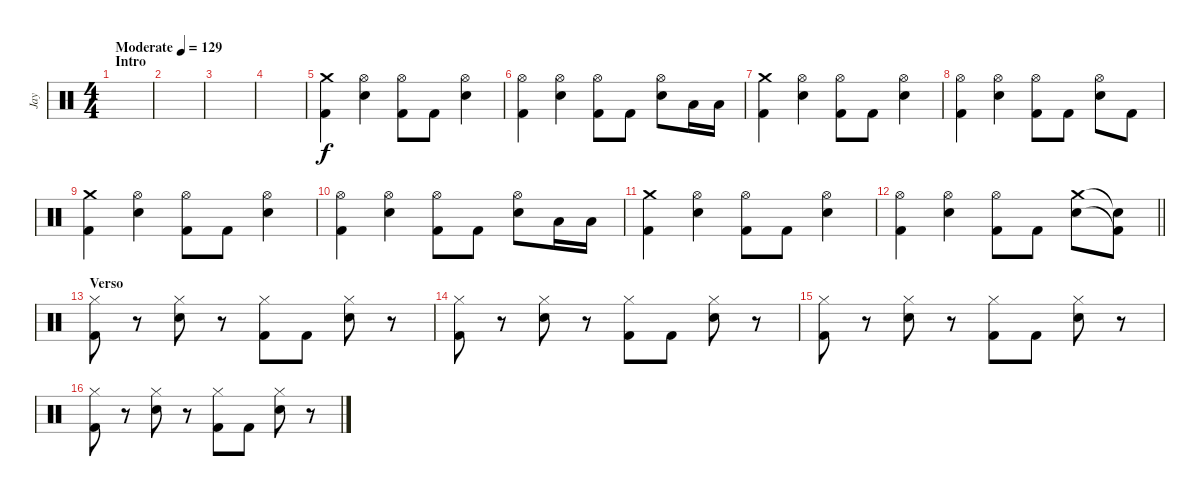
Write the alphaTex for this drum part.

\track ("Jay" "Jay") {instrument percussion}
\staff {score}
\articulation defaults
\ts (4 4)
\section ("" "Intro")
\tempo (129 "Moderate")
\clef neutral
\ks c
|
|
|
|
("Crash medium (hit)" "Kick (hit) 2").4 ("Hi-Hat (open)" "Electric Snare (hit)").4 ("Hi-Hat (open)" "Kick (hit) 2").8 "Kick (hit) 2".8 ("Hi-Hat (open)" "Electric Snare (hit)").4 |
("Hi-Hat (open)" "Kick (hit) 2").4 ("Hi-Hat (open)" "Electric Snare (hit)").4 ("Hi-Hat (open)" "Kick (hit) 2").8 "Kick (hit) 2".8 ("Hi-Hat (open)" "Electric Snare (hit)").8 "Low Tom (hit)".16 "Low Tom (hit)".16 |
("Crash medium (hit)" "Kick (hit) 2").4 ("Hi-Hat (open)" "Electric Snare (hit)").4 ("Hi-Hat (open)" "Kick (hit) 2").8 "Kick (hit) 2".8 ("Hi-Hat (open)" "Electric Snare (hit)").4 |
("Hi-Hat (open)" "Kick (hit) 2").4 ("Hi-Hat (open)" "Electric Snare (hit)").4 ("Hi-Hat (open)" "Kick (hit) 2").8 "Kick (hit) 2".8 ("Hi-Hat (open)" "Electric Snare (hit)").8 "Kick (hit) 2".8 |
("Crash medium (hit)" "Kick (hit) 2").4 ("Hi-Hat (open)" "Electric Snare (hit)").4 ("Hi-Hat (open)" "Kick (hit) 2").8 "Kick (hit) 2".8 ("Hi-Hat (open)" "Electric Snare (hit)").4 |
("Hi-Hat (open)" "Kick (hit) 2").4 ("Hi-Hat (open)" "Electric Snare (hit)").4 ("Hi-Hat (open)" "Kick (hit) 2").8 "Kick (hit) 2".8 ("Hi-Hat (open)" "Electric Snare (hit)").8 "Low Tom (hit)".16 "Low Tom (hit)".16 |
("Crash medium (hit)" "Kick (hit) 2").4 ("Hi-Hat (open)" "Electric Snare (hit)").4 ("Hi-Hat (open)" "Kick (hit) 2").8 "Kick (hit) 2".8 ("Hi-Hat (open)" "Electric Snare (hit)").4 |
\barLineRight lightlight
("Hi-Hat (open)" "Kick (hit) 2").4 ("Hi-Hat (open)" "Electric Snare (hit)").4 ("Hi-Hat (open)" "Kick (hit) 2").8 "Kick (hit) 2".8 ("Crash medium (hit)" "Electric Snare (hit)").8 ("Snare (hit)"{t} "Kick (hit) 2"{t}).8 |
\section ("" "Verso")
("Hi-Hat (closed)" "Kick (hit) 2").8 r.8 ("Hi-Hat (closed)" "Electric Snare (hit)").8 r.8 ("Hi-Hat (closed)" "Kick (hit) 2").8 "Kick (hit) 2".8 ("Hi-Hat (closed)" "Electric Snare (hit)").8 r.8 |
("Hi-Hat (closed)" "Kick (hit) 2").8 r.8 ("Hi-Hat (closed)" "Electric Snare (hit)").8 r.8 ("Hi-Hat (closed)" "Kick (hit) 2").8 "Kick (hit) 2".8 ("Hi-Hat (closed)" "Electric Snare (hit)").8 r.8 |
("Hi-Hat (closed)" "Kick (hit) 2").8 r.8 ("Hi-Hat (closed)" "Electric Snare (hit)").8 r.8 ("Hi-Hat (closed)" "Kick (hit) 2").8 "Kick (hit) 2".8 ("Hi-Hat (closed)" "Electric Snare (hit)").8 r.8 |
("Hi-Hat (closed)" "Kick (hit) 2").8 r.8 ("Hi-Hat (closed)" "Electric Snare (hit)").8 r.8 ("Hi-Hat (closed)" "Kick (hit) 2").8 "Kick (hit) 2".8 ("Hi-Hat (closed)" "Electric Snare (hit)").8 r.8
